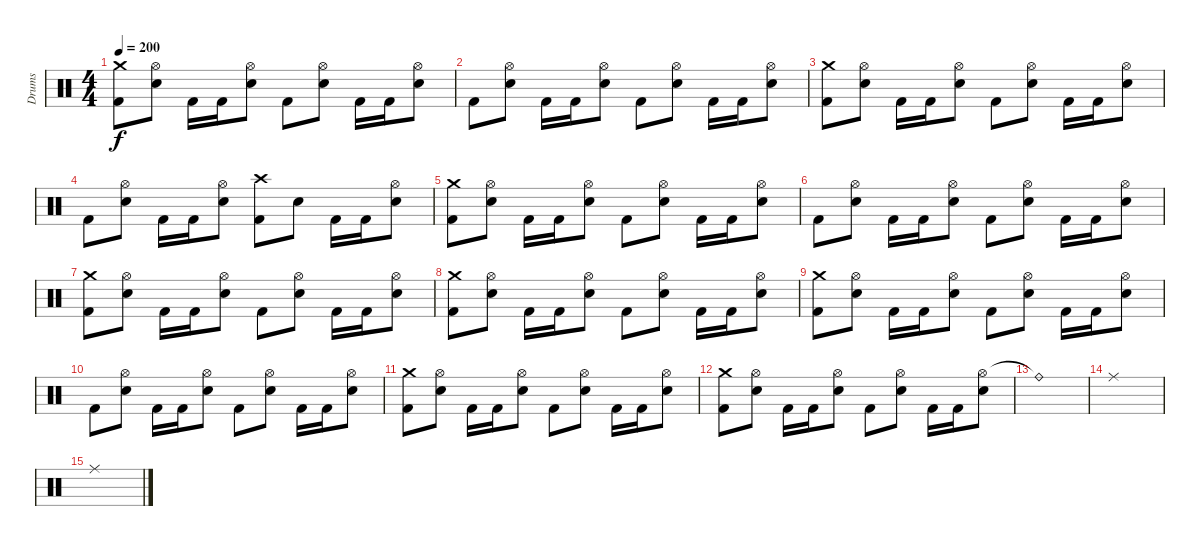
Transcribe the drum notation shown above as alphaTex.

\track ("Drums" "Drums") {instrument percussion}
\staff {score}
\articulation defaults
\ts (4 4)
\tempo 200
\clef neutral
\ks c
("Crash medium (hit)" "Kick (hit) 2").8{dy f} ("Hi-Hat (open)" "Electric Snare (hit)").8 "Kick (hit) 2".16 "Kick (hit) 2".16 ("Hi-Hat (open)" "Electric Snare (hit)").8 "Kick (hit) 2".8 ("Hi-Hat (open)" "Electric Snare (hit)").8 "Kick (hit) 2".16 "Kick (hit) 2".16 ("Hi-Hat (open)" "Electric Snare (hit)").8 |
"Kick (hit) 2".8 ("Hi-Hat (open)" "Electric Snare (hit)").8 "Kick (hit) 2".16 "Kick (hit) 2".16 ("Hi-Hat (open)" "Electric Snare (hit)").8 "Kick (hit) 2".8 ("Hi-Hat (open)" "Electric Snare (hit)").8 "Kick (hit) 2".16 "Kick (hit) 2".16 ("Hi-Hat (open)" "Electric Snare (hit)").8 |
("Crash medium (hit)" "Kick (hit) 2").8 ("Hi-Hat (open)" "Electric Snare (hit)").8 "Kick (hit) 2".16 "Kick (hit) 2".16 ("Hi-Hat (open)" "Electric Snare (hit)").8 "Kick (hit) 2".8 ("Hi-Hat (open)" "Electric Snare (hit)").8 "Kick (hit) 2".16 "Kick (hit) 2".16 ("Hi-Hat (open)" "Electric Snare (hit)").8 |
"Kick (hit) 2".8 ("Hi-Hat (open)" "Electric Snare (hit)").8 "Kick (hit) 2".16 "Kick (hit) 2".16 ("Hi-Hat (open)" "Electric Snare (hit)").8 ("Crash high (hit)" "Kick (hit) 2").8 "Electric Snare (hit)".8 "Kick (hit) 2".16 "Kick (hit) 2".16 ("Hi-Hat (open)" "Electric Snare (hit)").8 |
("Crash medium (hit)" "Kick (hit) 2").8 ("Hi-Hat (open)" "Electric Snare (hit)").8 "Kick (hit) 2".16 "Kick (hit) 2".16 ("Hi-Hat (open)" "Electric Snare (hit)").8 "Kick (hit) 2".8 ("Hi-Hat (open)" "Electric Snare (hit)").8 "Kick (hit) 2".16 "Kick (hit) 2".16 ("Hi-Hat (open)" "Electric Snare (hit)").8 |
"Kick (hit) 2".8 ("Hi-Hat (open)" "Electric Snare (hit)").8 "Kick (hit) 2".16 "Kick (hit) 2".16 ("Hi-Hat (open)" "Electric Snare (hit)").8 "Kick (hit) 2".8 ("Hi-Hat (open)" "Electric Snare (hit)").8 "Kick (hit) 2".16 "Kick (hit) 2".16 ("Hi-Hat (open)" "Electric Snare (hit)").8 |
("Crash medium (hit)" "Kick (hit) 2").8 ("Hi-Hat (open)" "Electric Snare (hit)").8 "Kick (hit) 2".16 "Kick (hit) 2".16 ("Hi-Hat (open)" "Electric Snare (hit)").8 "Kick (hit) 2".8 ("Hi-Hat (open)" "Electric Snare (hit)").8 "Kick (hit) 2".16 "Kick (hit) 2".16 ("Hi-Hat (open)" "Electric Snare (hit)").8 |
("Crash medium (hit)" "Kick (hit) 2").8 ("Hi-Hat (open)" "Electric Snare (hit)").8 "Kick (hit) 2".16 "Kick (hit) 2".16 ("Hi-Hat (open)" "Electric Snare (hit)").8 "Kick (hit) 2".8 ("Hi-Hat (open)" "Electric Snare (hit)").8 "Kick (hit) 2".16 "Kick (hit) 2".16 ("Hi-Hat (open)" "Electric Snare (hit)").8 |
("Crash medium (hit)" "Kick (hit) 2").8 ("Hi-Hat (open)" "Electric Snare (hit)").8 "Kick (hit) 2".16 "Kick (hit) 2".16 ("Hi-Hat (open)" "Electric Snare (hit)").8 "Kick (hit) 2".8 ("Hi-Hat (open)" "Electric Snare (hit)").8 "Kick (hit) 2".16 "Kick (hit) 2".16 ("Hi-Hat (open)" "Electric Snare (hit)").8 |
"Kick (hit) 2".8 ("Hi-Hat (open)" "Electric Snare (hit)").8 "Kick (hit) 2".16 "Kick (hit) 2".16 ("Hi-Hat (open)" "Electric Snare (hit)").8 "Kick (hit) 2".8 ("Hi-Hat (open)" "Electric Snare (hit)").8 "Kick (hit) 2".16 "Kick (hit) 2".16 ("Hi-Hat (open)" "Electric Snare (hit)").8 |
("Crash medium (hit)" "Kick (hit) 2").8 ("Hi-Hat (open)" "Electric Snare (hit)").8 "Kick (hit) 2".16 "Kick (hit) 2".16 ("Hi-Hat (open)" "Electric Snare (hit)").8 "Kick (hit) 2".8 ("Hi-Hat (open)" "Electric Snare (hit)").8 "Kick (hit) 2".16 "Kick (hit) 2".16 ("Hi-Hat (open)" "Electric Snare (hit)").8 |
("Crash medium (hit)" "Kick (hit) 2").8 ("Hi-Hat (open)" "Electric Snare (hit)").8 "Kick (hit) 2".16 "Kick (hit) 2".16 ("Hi-Hat (open)" "Electric Snare (hit)").8 "Kick (hit) 2".8 ("Hi-Hat (open)" "Electric Snare (hit)").8 "Kick (hit) 2".16 "Kick (hit) 2".16 ("Hi-Hat (open)" "Electric Snare (hit)").8 |
"Ride (bell)"{t}.1 |
"Ride (middle)".1 |
"Ride (middle)".1
